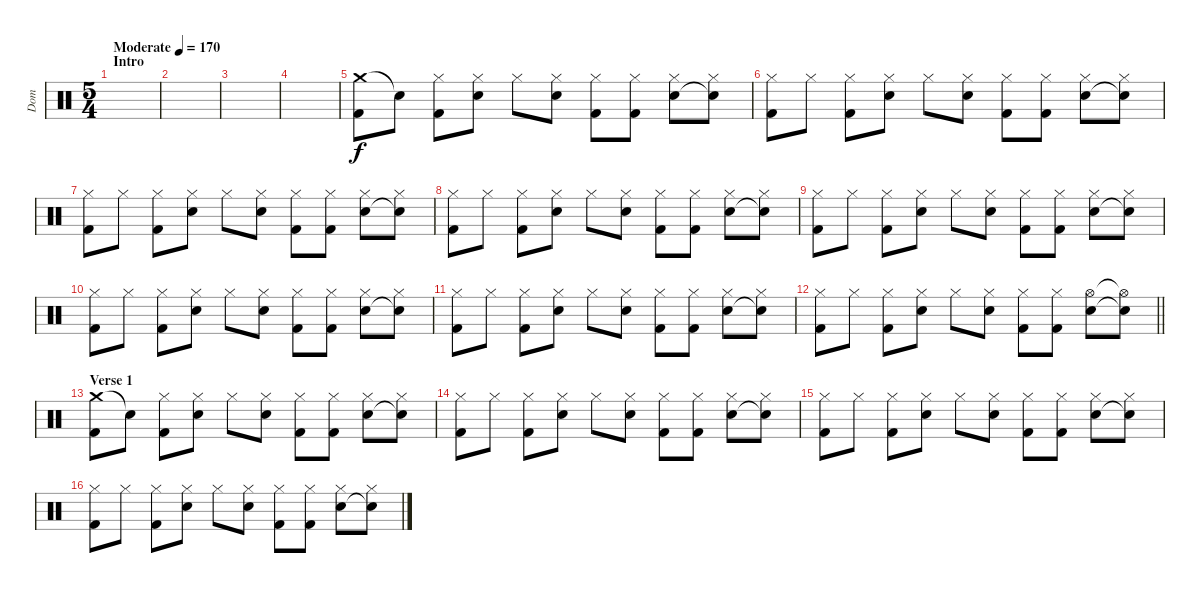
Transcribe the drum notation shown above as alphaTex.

\track ("Dom" "Dom") {instrument percussion}
\staff {score}
\articulation defaults
\ts (5 4)
\section ("" "Intro")
\tempo (170 "Moderate")
\clef neutral
\ks c
|
|
|
|
("Crash medium (hit)" "Kick (hit) 2").8 "Snare (hit)"{t}.8 ("Hi-Hat (closed)" "Kick (hit) 2").8 ("Hi-Hat (closed)" "Electric Snare (hit)").8 "Hi-Hat (closed)".8 ("Hi-Hat (closed)" "Electric Snare (hit)").8 ("Hi-Hat (closed)" "Kick (hit) 2").8 ("Hi-Hat (closed)" "Kick (hit) 2").8 ("Hi-Hat (closed)" "Electric Snare (hit)").8 ("Hi-Hat (closed)" "Snare (hit)"{t}).8 |
("Hi-Hat (closed)" "Kick (hit) 2").8 "Hi-Hat (closed)".8 ("Hi-Hat (closed)" "Kick (hit) 2").8 ("Hi-Hat (closed)" "Electric Snare (hit)").8 "Hi-Hat (closed)".8 ("Hi-Hat (closed)" "Electric Snare (hit)").8 ("Hi-Hat (closed)" "Kick (hit) 2").8 ("Hi-Hat (closed)" "Kick (hit) 2").8 ("Hi-Hat (closed)" "Electric Snare (hit)").8 ("Hi-Hat (closed)" "Snare (hit)"{t}).8 |
("Hi-Hat (closed)" "Kick (hit) 2").8 "Hi-Hat (closed)".8 ("Hi-Hat (closed)" "Kick (hit) 2").8 ("Hi-Hat (closed)" "Electric Snare (hit)").8 "Hi-Hat (closed)".8 ("Hi-Hat (closed)" "Electric Snare (hit)").8 ("Hi-Hat (closed)" "Kick (hit) 2").8 ("Hi-Hat (closed)" "Kick (hit) 2").8 ("Hi-Hat (closed)" "Electric Snare (hit)").8 ("Hi-Hat (closed)" "Snare (hit)"{t}).8 |
("Hi-Hat (closed)" "Kick (hit) 2").8 "Hi-Hat (closed)".8 ("Hi-Hat (closed)" "Kick (hit) 2").8 ("Hi-Hat (closed)" "Electric Snare (hit)").8 "Hi-Hat (closed)".8 ("Hi-Hat (closed)" "Electric Snare (hit)").8 ("Hi-Hat (closed)" "Kick (hit) 2").8 ("Hi-Hat (closed)" "Kick (hit) 2").8 ("Hi-Hat (closed)" "Electric Snare (hit)").8 ("Hi-Hat (closed)" "Snare (hit)"{t}).8 |
("Hi-Hat (closed)" "Kick (hit) 2").8 "Hi-Hat (closed)".8 ("Hi-Hat (closed)" "Kick (hit) 2").8 ("Hi-Hat (closed)" "Electric Snare (hit)").8 "Hi-Hat (closed)".8 ("Hi-Hat (closed)" "Electric Snare (hit)").8 ("Hi-Hat (closed)" "Kick (hit) 2").8 ("Hi-Hat (closed)" "Kick (hit) 2").8 ("Hi-Hat (closed)" "Electric Snare (hit)").8 ("Hi-Hat (closed)" "Snare (hit)"{t}).8 |
("Hi-Hat (closed)" "Kick (hit) 2").8 "Hi-Hat (closed)".8 ("Hi-Hat (closed)" "Kick (hit) 2").8 ("Hi-Hat (closed)" "Electric Snare (hit)").8 "Hi-Hat (closed)".8 ("Hi-Hat (closed)" "Electric Snare (hit)").8 ("Hi-Hat (closed)" "Kick (hit) 2").8 ("Hi-Hat (closed)" "Kick (hit) 2").8 ("Hi-Hat (closed)" "Electric Snare (hit)").8 ("Hi-Hat (closed)" "Snare (hit)"{t}).8 |
("Hi-Hat (closed)" "Kick (hit) 2").8 "Hi-Hat (closed)".8 ("Hi-Hat (closed)" "Kick (hit) 2").8 ("Hi-Hat (closed)" "Electric Snare (hit)").8 "Hi-Hat (closed)".8 ("Hi-Hat (closed)" "Electric Snare (hit)").8 ("Hi-Hat (closed)" "Kick (hit) 2").8 ("Hi-Hat (closed)" "Kick (hit) 2").8 ("Hi-Hat (closed)" "Electric Snare (hit)").8 ("Hi-Hat (closed)" "Snare (hit)"{t}).8 |
\barLineRight lightlight
("Hi-Hat (closed)" "Kick (hit) 2").8 "Hi-Hat (closed)".8 ("Hi-Hat (closed)" "Kick (hit) 2").8 ("Hi-Hat (closed)" "Electric Snare (hit)").8 "Hi-Hat (closed)".8 ("Hi-Hat (closed)" "Electric Snare (hit)").8 ("Hi-Hat (closed)" "Kick (hit) 2").8 ("Hi-Hat (closed)" "Kick (hit) 2").8 ("Hi-Hat (open)" "Electric Snare (hit)").8 ("Hi-Hat (open)"{t} "Snare (hit)"{t}).8 |
\section ("" "Verse 1")
("Crash medium (hit)" "Kick (hit) 2").8 "Snare (hit)"{t}.8 ("Hi-Hat (closed)" "Kick (hit) 2").8 ("Hi-Hat (closed)" "Electric Snare (hit)").8 "Hi-Hat (closed)".8 ("Hi-Hat (closed)" "Electric Snare (hit)").8 ("Hi-Hat (closed)" "Kick (hit) 2").8 ("Hi-Hat (closed)" "Kick (hit) 2").8 ("Hi-Hat (closed)" "Electric Snare (hit)").8 ("Hi-Hat (closed)" "Snare (hit)"{t}).8 |
("Hi-Hat (closed)" "Kick (hit) 2").8 "Hi-Hat (closed)".8 ("Hi-Hat (closed)" "Kick (hit) 2").8 ("Hi-Hat (closed)" "Electric Snare (hit)").8 "Hi-Hat (closed)".8 ("Hi-Hat (closed)" "Electric Snare (hit)").8 ("Hi-Hat (closed)" "Kick (hit) 2").8 ("Hi-Hat (closed)" "Kick (hit) 2").8 ("Hi-Hat (closed)" "Electric Snare (hit)").8 ("Hi-Hat (closed)" "Snare (hit)"{t}).8 |
("Hi-Hat (closed)" "Kick (hit) 2").8 "Hi-Hat (closed)".8 ("Hi-Hat (closed)" "Kick (hit) 2").8 ("Hi-Hat (closed)" "Electric Snare (hit)").8 "Hi-Hat (closed)".8 ("Hi-Hat (closed)" "Electric Snare (hit)").8 ("Hi-Hat (closed)" "Kick (hit) 2").8 ("Hi-Hat (closed)" "Kick (hit) 2").8 ("Hi-Hat (closed)" "Electric Snare (hit)").8 ("Hi-Hat (closed)" "Snare (hit)"{t}).8 |
("Hi-Hat (closed)" "Kick (hit) 2").8 "Hi-Hat (closed)".8 ("Hi-Hat (closed)" "Kick (hit) 2").8 ("Hi-Hat (closed)" "Electric Snare (hit)").8 "Hi-Hat (closed)".8 ("Hi-Hat (closed)" "Electric Snare (hit)").8 ("Hi-Hat (closed)" "Kick (hit) 2").8 ("Hi-Hat (closed)" "Kick (hit) 2").8 ("Hi-Hat (closed)" "Electric Snare (hit)").8 ("Hi-Hat (closed)" "Snare (hit)"{t}).8
